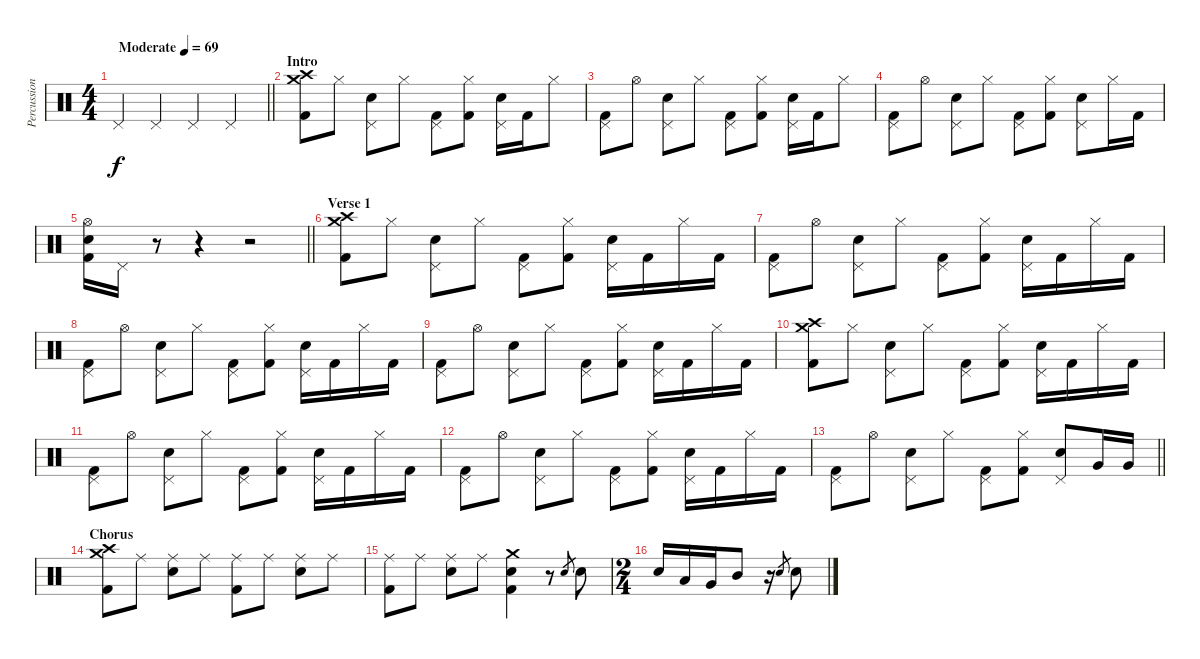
\track ("Percussion" "Percussion") {instrument percussion}
\staff {score}
\articulation defaults
\ts (4 4)
\tempo (69 "Moderate")
\clef neutral
\barLineRight lightlight
\ks c "Pedal Hi-Hat (hit)".4{dy f} "Pedal Hi-Hat (hit)".4 "Pedal Hi-Hat (hit)".4 "Pedal Hi-Hat (hit)".4
|
\section ("" "Intro")
("Crash medium (hit)" "Crash high (hit)" "Kick (hit) 2").8 "Hi-Hat (closed)".8 ("Snare (hit) 2" "Pedal Hi-Hat (hit)").8 "Hi-Hat (closed)".8 ("Pedal Hi-Hat (hit)" "Kick (hit) 2").8 ("Hi-Hat (closed)" "Kick (hit) 2").8 ("Snare (hit) 2" "Pedal Hi-Hat (hit)").16 "Kick (hit) 2".16 "Hi-Hat (closed)".8 |
("Pedal Hi-Hat (hit)" "Kick (hit) 2").8 "Hi-Hat (open)".8 ("Snare (hit) 2" "Pedal Hi-Hat (hit)").8 "Hi-Hat (closed)".8 ("Pedal Hi-Hat (hit)" "Kick (hit) 2").8 ("Hi-Hat (closed)" "Kick (hit) 2").8 ("Snare (hit) 2" "Pedal Hi-Hat (hit)").16 "Kick (hit) 2".16 "Hi-Hat (closed)".8 |
("Pedal Hi-Hat (hit)" "Kick (hit) 2").8 "Hi-Hat (open)".8 ("Snare (hit) 2" "Pedal Hi-Hat (hit)").8 "Hi-Hat (closed)".8 ("Pedal Hi-Hat (hit)" "Kick (hit) 2").8 ("Hi-Hat (closed)" "Kick (hit) 2").8 ("Snare (hit) 2" "Pedal Hi-Hat (hit)").8 "Hi-Hat (closed)".16 "Kick (hit) 2".16 |
\barLineRight lightlight
("Snare (hit) 2" "Hi-Hat (open)" "Kick (hit) 2").16 "Pedal Hi-Hat (hit)".16 r.8 r.4 r.2 |
\section ("" "Verse 1")
("Crash medium (hit)" "Crash high (hit)" "Kick (hit) 2").8 "Hi-Hat (closed)".8 ("Snare (hit) 2" "Pedal Hi-Hat (hit)").8 "Hi-Hat (closed)".8 ("Pedal Hi-Hat (hit)" "Kick (hit) 2").8 ("Hi-Hat (closed)" "Kick (hit) 2").8 ("Snare (hit) 2" "Pedal Hi-Hat (hit)").16 "Kick (hit) 2".16 "Hi-Hat (closed)".16 "Kick (hit) 2".16 |
("Pedal Hi-Hat (hit)" "Kick (hit) 2").8 "Hi-Hat (open)".8 ("Snare (hit) 2" "Pedal Hi-Hat (hit)").8 "Hi-Hat (closed)".8 ("Pedal Hi-Hat (hit)" "Kick (hit) 2").8 ("Hi-Hat (closed)" "Kick (hit) 2").8 ("Snare (hit) 2" "Pedal Hi-Hat (hit)").16 "Kick (hit) 2".16 "Hi-Hat (closed)".16 "Kick (hit) 2".16 |
("Pedal Hi-Hat (hit)" "Kick (hit) 2").8 "Hi-Hat (open)".8 ("Snare (hit) 2" "Pedal Hi-Hat (hit)").8 "Hi-Hat (closed)".8 ("Pedal Hi-Hat (hit)" "Kick (hit) 2").8 ("Hi-Hat (closed)" "Kick (hit) 2").8 ("Snare (hit) 2" "Pedal Hi-Hat (hit)").16 "Kick (hit) 2".16 "Hi-Hat (closed)".16 "Kick (hit) 2".16 |
("Pedal Hi-Hat (hit)" "Kick (hit) 2").8 "Hi-Hat (open)".8 ("Snare (hit) 2" "Pedal Hi-Hat (hit)").8 "Hi-Hat (closed)".8 ("Pedal Hi-Hat (hit)" "Kick (hit) 2").8 ("Hi-Hat (closed)" "Kick (hit) 2").8 ("Snare (hit) 2" "Pedal Hi-Hat (hit)").16 "Kick (hit) 2".16 "Hi-Hat (closed)".16 "Kick (hit) 2".16 |
("Crash medium (hit)" "Crash high (hit)" "Kick (hit) 2").8 "Hi-Hat (closed)".8 ("Snare (hit) 2" "Pedal Hi-Hat (hit)").8 "Hi-Hat (closed)".8 ("Pedal Hi-Hat (hit)" "Kick (hit) 2").8 ("Hi-Hat (closed)" "Kick (hit) 2").8 ("Snare (hit) 2" "Pedal Hi-Hat (hit)").16 "Kick (hit) 2".16 "Hi-Hat (closed)".16 "Kick (hit) 2".16 |
("Pedal Hi-Hat (hit)" "Kick (hit) 2").8 "Hi-Hat (open)".8 ("Snare (hit) 2" "Pedal Hi-Hat (hit)").8 "Hi-Hat (closed)".8 ("Pedal Hi-Hat (hit)" "Kick (hit) 2").8 ("Hi-Hat (closed)" "Kick (hit) 2").8 ("Snare (hit) 2" "Pedal Hi-Hat (hit)").16 "Kick (hit) 2".16 "Hi-Hat (closed)".16 "Kick (hit) 2".16 |
("Pedal Hi-Hat (hit)" "Kick (hit) 2").8 "Hi-Hat (open)".8 ("Snare (hit) 2" "Pedal Hi-Hat (hit)").8 "Hi-Hat (closed)".8 ("Pedal Hi-Hat (hit)" "Kick (hit) 2").8 ("Hi-Hat (closed)" "Kick (hit) 2").8 ("Snare (hit) 2" "Pedal Hi-Hat (hit)").16 "Kick (hit) 2".16 "Hi-Hat (closed)".16 "Kick (hit) 2".16 |
\barLineRight lightlight
("Pedal Hi-Hat (hit)" "Kick (hit) 2").8 "Hi-Hat (open)".8 ("Snare (hit) 2" "Pedal Hi-Hat (hit)").8 "Hi-Hat (closed)".8 ("Pedal Hi-Hat (hit)" "Kick (hit) 2").8 ("Hi-Hat (closed)" "Kick (hit) 2").8 ("Snare (hit) 2" "Pedal Hi-Hat (hit)").8 "Very Low Tom (hit)".16 "Very Low Tom (hit)".16 |
\section ("" "Chorus")
("Crash medium (hit)" "Crash high (hit)" "Kick (hit) 2").8 "Ride (middle)".8 ("Ride (middle)" "Snare (hit) 2").8 "Ride (middle)".8 ("Ride (middle)" "Kick (hit) 2").8 "Ride (middle)".8 ("Ride (middle)" "Snare (hit) 2").8 "Ride (middle)".8 |
("Ride (middle)" "Kick (hit) 2").8 "Ride (middle)".8 ("Ride (middle)" "Snare (hit) 2").8 "Ride (middle)".8 ("Crash medium (hit)" "Snare (hit) 2" "Kick (hit) 2").4 r.8 "Snare (hit) 2".8{gr} "Snare (hit) 2".8 |
\ts (2 4)
"Snare (hit) 2".16 "Low Tom (hit)".16 "Very Low Tom (hit)".16 "Mid Tom (hit)".8 r.16 "Snare (hit) 2".8{gr} "Snare (hit) 2".8
